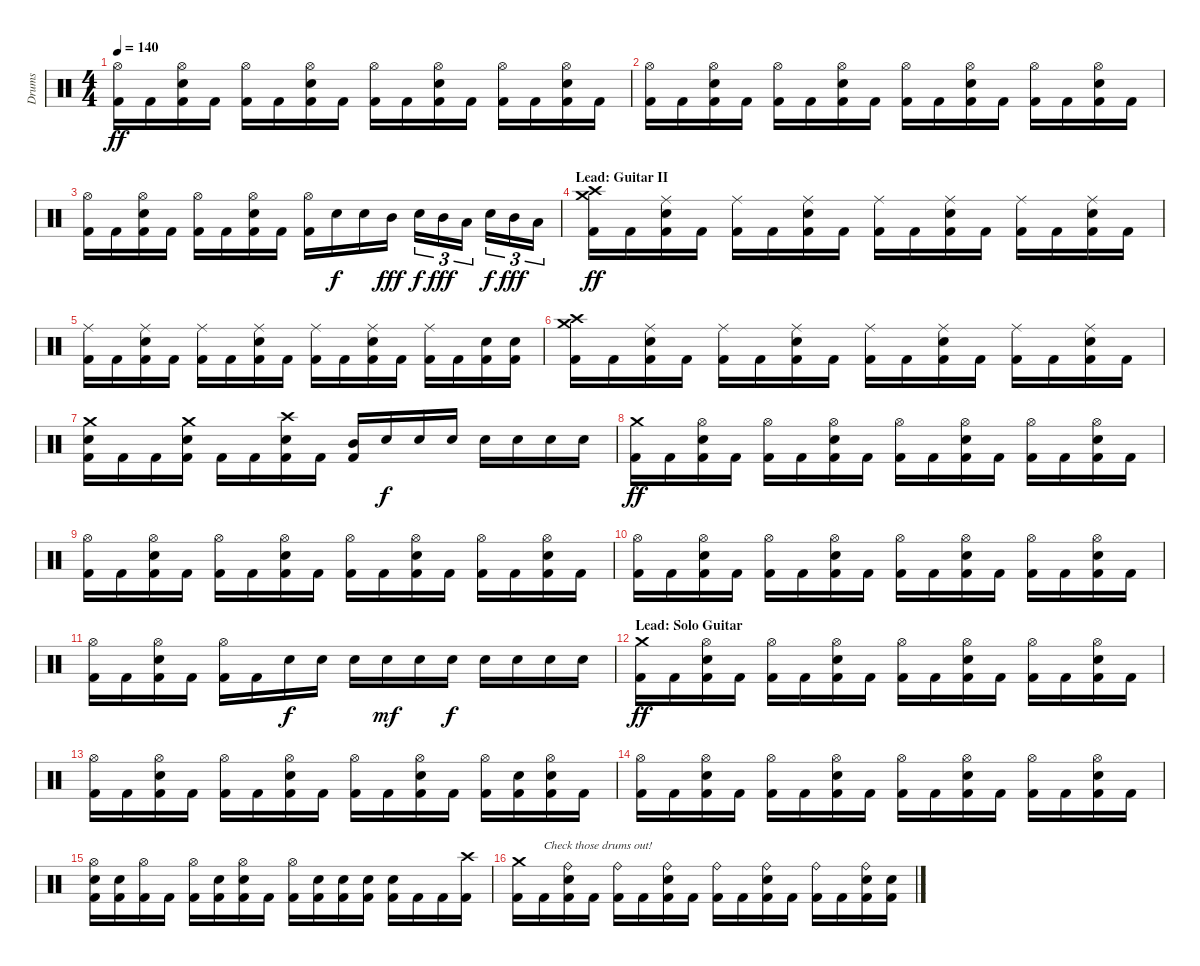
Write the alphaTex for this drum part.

\track ("Drums" "Drums") {instrument percussion}
\staff {score}
\articulation defaults
\ts (4 4)
\tempo 140
\clef neutral
\ks c
("Hi-Hat (open)" "Kick (hit) 2").16{dy ff} "Kick (hit) 2".16 ("Hi-Hat (open)" "Snare (hit) 2" "Kick (hit) 2").16 "Kick (hit) 2".16 ("Hi-Hat (open)" "Kick (hit) 2").16 "Kick (hit) 2".16 ("Hi-Hat (open)" "Snare (hit) 2" "Kick (hit) 2").16 "Kick (hit) 2".16 ("Hi-Hat (open)" "Kick (hit) 2").16 "Kick (hit) 2".16 ("Hi-Hat (open)" "Snare (hit) 2" "Kick (hit) 2").16 "Kick (hit) 2".16 ("Hi-Hat (open)" "Kick (hit) 2").16 "Kick (hit) 2".16 ("Hi-Hat (open)" "Snare (hit) 2" "Kick (hit) 2").16 "Kick (hit) 2".16 |
("Hi-Hat (open)" "Kick (hit) 2").16 "Kick (hit) 2".16 ("Hi-Hat (open)" "Snare (hit) 2" "Kick (hit) 2").16 "Kick (hit) 2".16 ("Hi-Hat (open)" "Kick (hit) 2").16 "Kick (hit) 2".16 ("Hi-Hat (open)" "Snare (hit) 2" "Kick (hit) 2").16 "Kick (hit) 2".16 ("Hi-Hat (open)" "Kick (hit) 2").16 "Kick (hit) 2".16 ("Hi-Hat (open)" "Snare (hit) 2" "Kick (hit) 2").16 "Kick (hit) 2".16 ("Hi-Hat (open)" "Kick (hit) 2").16 "Kick (hit) 2".16 ("Hi-Hat (open)" "Snare (hit) 2" "Kick (hit) 2").16 "Kick (hit) 2".16 |
("Hi-Hat (open)" "Kick (hit) 2").16 "Kick (hit) 2".16 ("Hi-Hat (open)" "Snare (hit) 2" "Kick (hit) 2").16 "Kick (hit) 2".16 ("Hi-Hat (open)" "Kick (hit) 2").16 "Kick (hit) 2".16 ("Hi-Hat (open)" "Snare (hit) 2" "Kick (hit) 2").16 "Kick (hit) 2".16 ("Hi-Hat (open)" "Kick (hit) 2").16 "Snare (hit) 2".16{dy f} "Snare (hit) 2".16 "Mid Tom (hit)".16{dy fff} "Snare (hit) 2".16{tu (3 2) dy f} "Mid Tom (hit)".16{tu (3 2) dy fff} "Low Tom (hit)".16{tu (3 2)} "Snare (hit) 2".16{tu (3 2) dy f} "Mid Tom (hit)".16{tu (3 2) dy fff} "Low Tom (hit)".16{tu (3 2)} |
\section ("" "Lead: Guitar II")
("Crash high (hit)" "Crash medium (hit)" "Kick (hit) 2").16{dy ff} "Kick (hit) 2".16 ("Ride (middle)" "Snare (hit) 2" "Kick (hit) 2").16 "Kick (hit) 2".16 ("Ride (middle)" "Kick (hit) 2").16 "Kick (hit) 2".16 ("Ride (middle)" "Snare (hit) 2" "Kick (hit) 2").16 "Kick (hit) 2".16 ("Ride (middle)" "Kick (hit) 2").16 "Kick (hit) 2".16 ("Ride (middle)" "Snare (hit) 2" "Kick (hit) 2").16 "Kick (hit) 2".16 ("Ride (middle)" "Kick (hit) 2").16 "Kick (hit) 2".16 ("Ride (middle)" "Snare (hit) 2" "Kick (hit) 2").16 "Kick (hit) 2".16 |
("Ride (middle)" "Kick (hit) 2").16 "Kick (hit) 2".16 ("Ride (middle)" "Snare (hit) 2" "Kick (hit) 2").16 "Kick (hit) 2".16 ("Ride (middle)" "Kick (hit) 2").16 "Kick (hit) 2".16 ("Ride (middle)" "Snare (hit) 2" "Kick (hit) 2").16 "Kick (hit) 2".16 ("Ride (middle)" "Kick (hit) 2").16 "Kick (hit) 2".16 ("Ride (middle)" "Snare (hit) 2" "Kick (hit) 2").16 "Kick (hit) 2".16 ("Ride (middle)" "Kick (hit) 2").16 "Kick (hit) 2".16 ("Snare (hit) 2" "Kick (hit) 2").16 ("Snare (hit) 2" "Kick (hit) 2").16 |
("Crash high (hit)" "Crash medium (hit)" "Kick (hit) 2").16 "Kick (hit) 2".16 ("Ride (middle)" "Snare (hit) 2" "Kick (hit) 2").16 "Kick (hit) 2".16 ("Ride (middle)" "Kick (hit) 2").16 "Kick (hit) 2".16 ("Ride (middle)" "Snare (hit) 2" "Kick (hit) 2").16 "Kick (hit) 2".16 ("Ride (middle)" "Kick (hit) 2").16 "Kick (hit) 2".16 ("Ride (middle)" "Snare (hit) 2" "Kick (hit) 2").16 "Kick (hit) 2".16 ("Ride (middle)" "Kick (hit) 2").16 "Kick (hit) 2".16 ("Ride (middle)" "Snare (hit) 2" "Kick (hit) 2").16 "Kick (hit) 2".16 |
("Crash medium (hit)" "Snare (hit) 2" "Kick (hit) 2").16 "Kick (hit) 2".16 "Kick (hit) 2".16 ("Crash medium (hit)" "Snare (hit) 2" "Kick (hit) 2").16 "Kick (hit) 2".16 "Kick (hit) 2".16 ("Crash high (hit)" "Snare (hit) 2" "Kick (hit) 2").16 "Kick (hit) 2".16 ("Mid Tom (hit)" "Kick (hit) 2").16 "Snare (hit) 2".16{dy f} "Snare (hit) 2".16 "Snare (hit) 2".16 "Snare (hit) 2".16 "Snare (hit) 2".16 "Snare (hit) 2".16 "Snare (hit) 2".16 |
("Crash medium (hit)" "Kick (hit) 2").16{dy ff} "Kick (hit) 2".16 ("Hi-Hat (open)" "Snare (hit) 2" "Kick (hit) 2").16 "Kick (hit) 2".16 ("Hi-Hat (open)" "Kick (hit) 2").16 "Kick (hit) 2".16 ("Hi-Hat (open)" "Snare (hit) 2" "Kick (hit) 2").16 "Kick (hit) 2".16 ("Hi-Hat (open)" "Kick (hit) 2").16 "Kick (hit) 2".16 ("Hi-Hat (open)" "Snare (hit) 2" "Kick (hit) 2").16 "Kick (hit) 2".16 ("Hi-Hat (open)" "Kick (hit) 2").16 "Kick (hit) 2".16 ("Hi-Hat (open)" "Snare (hit) 2" "Kick (hit) 2").16 "Kick (hit) 2".16 |
("Hi-Hat (open)" "Kick (hit) 2").16 "Kick (hit) 2".16 ("Hi-Hat (open)" "Snare (hit) 2" "Kick (hit) 2").16 "Kick (hit) 2".16 ("Hi-Hat (open)" "Kick (hit) 2").16 "Kick (hit) 2".16 ("Hi-Hat (open)" "Snare (hit) 2" "Kick (hit) 2").16 "Kick (hit) 2".16 ("Hi-Hat (open)" "Kick (hit) 2").16 "Kick (hit) 2".16 ("Hi-Hat (open)" "Snare (hit) 2" "Kick (hit) 2").16 "Kick (hit) 2".16 ("Hi-Hat (open)" "Kick (hit) 2").16 "Kick (hit) 2".16 ("Hi-Hat (open)" "Snare (hit) 2" "Kick (hit) 2").16 "Kick (hit) 2".16 |
("Hi-Hat (open)" "Kick (hit) 2").16 "Kick (hit) 2".16 ("Hi-Hat (open)" "Snare (hit) 2" "Kick (hit) 2").16 "Kick (hit) 2".16 ("Hi-Hat (open)" "Kick (hit) 2").16 "Kick (hit) 2".16 ("Hi-Hat (open)" "Snare (hit) 2" "Kick (hit) 2").16 "Kick (hit) 2".16 ("Hi-Hat (open)" "Kick (hit) 2").16 "Kick (hit) 2".16 ("Hi-Hat (open)" "Snare (hit) 2" "Kick (hit) 2").16 "Kick (hit) 2".16 ("Hi-Hat (open)" "Kick (hit) 2").16 "Kick (hit) 2".16 ("Hi-Hat (open)" "Snare (hit) 2" "Kick (hit) 2").16 "Kick (hit) 2".16 |
("Hi-Hat (open)" "Kick (hit) 2").16 "Kick (hit) 2".16 ("Hi-Hat (open)" "Snare (hit) 2" "Kick (hit) 2").16 "Kick (hit) 2".16 ("Hi-Hat (open)" "Kick (hit) 2").16 "Kick (hit) 2".16 "Snare (hit) 2".16{dy f} "Snare (hit) 2".16 "Snare (hit) 2".16 "Snare (hit) 2".16{dy mf} "Snare (hit) 2".16 "Snare (hit) 2".16{dy f} "Snare (hit) 2".16 "Snare (hit) 2".16 "Snare (hit) 2".16 "Snare (hit) 2".16 |
\section ("" "Lead: Solo Guitar")
("Crash medium (hit)" "Kick (hit) 2").16{dy ff} "Kick (hit) 2".16 ("Hi-Hat (open)" "Snare (hit) 2" "Kick (hit) 2").16 "Kick (hit) 2".16 ("Hi-Hat (open)" "Kick (hit) 2").16 "Kick (hit) 2".16 ("Hi-Hat (open)" "Snare (hit) 2" "Kick (hit) 2").16 "Kick (hit) 2".16 ("Hi-Hat (open)" "Kick (hit) 2").16 "Kick (hit) 2".16 ("Hi-Hat (open)" "Snare (hit) 2" "Kick (hit) 2").16 "Kick (hit) 2".16 ("Hi-Hat (open)" "Kick (hit) 2").16 "Kick (hit) 2".16 ("Hi-Hat (open)" "Snare (hit) 2" "Kick (hit) 2").16 "Kick (hit) 2".16 |
("Hi-Hat (open)" "Kick (hit) 2").16 "Kick (hit) 2".16 ("Hi-Hat (open)" "Snare (hit) 2" "Kick (hit) 2").16 "Kick (hit) 2".16 ("Hi-Hat (open)" "Kick (hit) 2").16 "Kick (hit) 2".16 ("Hi-Hat (open)" "Snare (hit) 2" "Kick (hit) 2").16 "Kick (hit) 2".16 ("Hi-Hat (open)" "Kick (hit) 2").16 "Kick (hit) 2".16 ("Hi-Hat (open)" "Snare (hit) 2" "Kick (hit) 2").16 "Kick (hit) 2".16 ("Hi-Hat (open)" "Kick (hit) 2").16 ("Snare (hit) 2" "Kick (hit) 2").16 ("Hi-Hat (open)" "Snare (hit) 2" "Kick (hit) 2").16 "Kick (hit) 2".16 |
("Hi-Hat (open)" "Kick (hit) 2").16 "Kick (hit) 2".16 ("Hi-Hat (open)" "Snare (hit) 2" "Kick (hit) 2").16 "Kick (hit) 2".16 ("Hi-Hat (open)" "Kick (hit) 2").16 "Kick (hit) 2".16 ("Hi-Hat (open)" "Snare (hit) 2" "Kick (hit) 2").16 "Kick (hit) 2".16 ("Hi-Hat (open)" "Kick (hit) 2").16 "Kick (hit) 2".16 ("Hi-Hat (open)" "Snare (hit) 2" "Kick (hit) 2").16 "Kick (hit) 2".16 ("Hi-Hat (open)" "Kick (hit) 2").16 "Kick (hit) 2".16 ("Hi-Hat (open)" "Snare (hit) 2" "Kick (hit) 2").16 "Kick (hit) 2".16 |
("Hi-Hat (open)" "Snare (hit) 2" "Kick (hit) 2").16 ("Snare (hit) 2" "Kick (hit) 2").16 ("Hi-Hat (open)" "Kick (hit) 2").16 "Kick (hit) 2".16 ("Hi-Hat (open)" "Kick (hit) 2").16 ("Snare (hit) 2" "Kick (hit) 2").16 ("Hi-Hat (open)" "Snare (hit) 2" "Kick (hit) 2").16 "Kick (hit) 2".16 ("Hi-Hat (open)" "Kick (hit) 2").16 ("Snare (hit) 2" "Kick (hit) 2").16 ("Snare (hit) 2" "Kick (hit) 2").16 ("Snare (hit) 2" "Kick (hit) 2").16 ("Snare (hit) 2" "Kick (hit) 2").16 "Kick (hit) 2".16 "Kick (hit) 2".16 ("Crash high (hit)" "Kick (hit) 2").16 |
("Crash medium (hit)" "Kick (hit) 2").16{volume 0} "Kick (hit) 2".16{txt "Check those drums out!"} ("Ride (bell)" "Snare (hit) 2" "Kick (hit) 2").16 "Kick (hit) 2".16 ("Ride (bell)" "Kick (hit) 2").16 "Kick (hit) 2".16 ("Ride (bell)" "Snare (hit) 2" "Kick (hit) 2").16 "Kick (hit) 2".16 ("Ride (bell)" "Kick (hit) 2").16 "Kick (hit) 2".16 ("Ride (bell)" "Snare (hit) 2" "Kick (hit) 2").16 "Kick (hit) 2".16 ("Ride (bell)" "Kick (hit) 2").16 "Kick (hit) 2".16 ("Ride (bell)" "Snare (hit) 2" "Kick (hit) 2").16 ("Snare (hit) 2" "Kick (hit) 2").16
